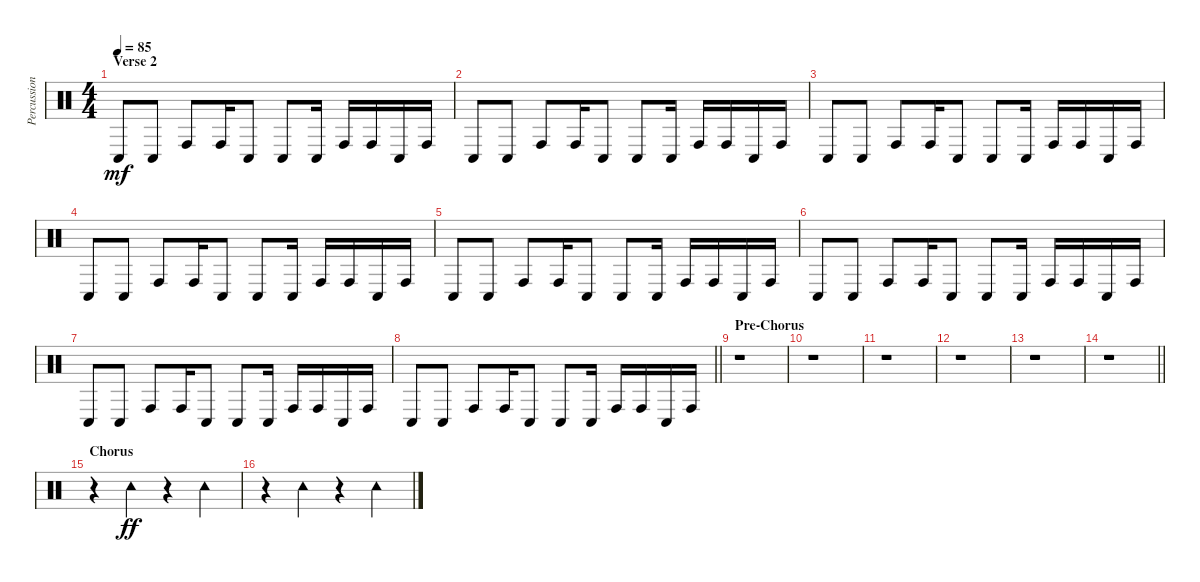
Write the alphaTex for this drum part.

\track ("Percussions" "Percussion") {instrument percussion}
\staff {score}
\articulation defaults
\ts (4 4)
\section ("" "Verse 2")
\tempo 85
\clef neutral
\ks c "Conga low (hit)".8{dy mf} "Conga low (hit)".8 "Conga high (hit)".8 "Conga high (hit)".16 "Conga low (hit)".8 "Conga low (hit)".8 "Conga low (hit)".16 "Conga high (hit)".16 "Conga high (hit)".16 "Conga low (hit)".16 "Conga high (hit)".16
|
"Conga low (hit)".8 "Conga low (hit)".8 "Conga high (hit)".8 "Conga high (hit)".16 "Conga low (hit)".8 "Conga low (hit)".8 "Conga low (hit)".16 "Conga high (hit)".16 "Conga high (hit)".16 "Conga low (hit)".16 "Conga high (hit)".16 |
"Conga low (hit)".8 "Conga low (hit)".8 "Conga high (hit)".8 "Conga high (hit)".16 "Conga low (hit)".8 "Conga low (hit)".8 "Conga low (hit)".16 "Conga high (hit)".16 "Conga high (hit)".16 "Conga low (hit)".16 "Conga high (hit)".16 |
"Conga low (hit)".8 "Conga low (hit)".8 "Conga high (hit)".8 "Conga high (hit)".16 "Conga low (hit)".8 "Conga low (hit)".8 "Conga low (hit)".16 "Conga high (hit)".16 "Conga high (hit)".16 "Conga low (hit)".16 "Conga high (hit)".16 |
"Conga low (hit)".8 "Conga low (hit)".8 "Conga high (hit)".8 "Conga high (hit)".16 "Conga low (hit)".8 "Conga low (hit)".8 "Conga low (hit)".16 "Conga high (hit)".16 "Conga high (hit)".16 "Conga low (hit)".16 "Conga high (hit)".16 |
"Conga low (hit)".8 "Conga low (hit)".8 "Conga high (hit)".8 "Conga high (hit)".16 "Conga low (hit)".8 "Conga low (hit)".8 "Conga low (hit)".16 "Conga high (hit)".16 "Conga high (hit)".16 "Conga low (hit)".16 "Conga high (hit)".16 |
"Conga low (hit)".8 "Conga low (hit)".8 "Conga high (hit)".8 "Conga high (hit)".16 "Conga low (hit)".8 "Conga low (hit)".8 "Conga low (hit)".16 "Conga high (hit)".16 "Conga high (hit)".16 "Conga low (hit)".16 "Conga high (hit)".16 |
\barLineRight lightlight "Conga low (hit)".8 "Conga low (hit)".8 "Conga high (hit)".8 "Conga high (hit)".16 "Conga low (hit)".8 "Conga low (hit)".8 "Conga low (hit)".16 "Conga high (hit)".16 "Conga high (hit)".16 "Conga low (hit)".16 "Conga high (hit)".16
|
\section ("" "Pre-Chorus")
r.1 |
r.1 |
r.1 |
r.1 |
r.1 |
\barLineRight lightlight
r.1 |
\section ("" "Chorus")
r.4 "Tambourine (hit)".4{dy ff} r.4 "Tambourine (hit)".4 |
r.4 "Tambourine (hit)".4 r.4 "Tambourine (hit)".4
